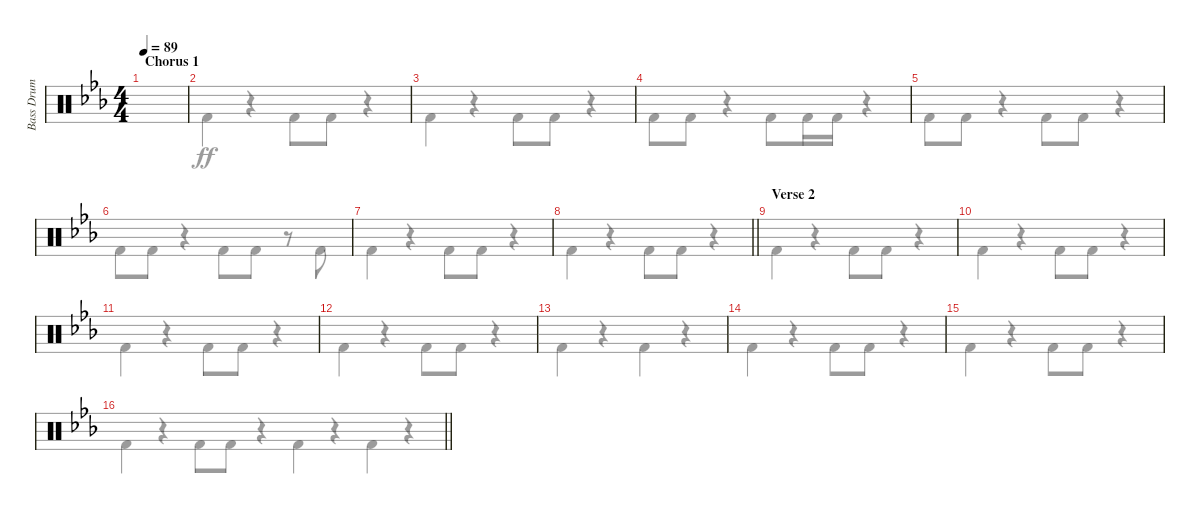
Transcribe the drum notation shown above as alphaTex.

\track ("Bass Drum" "Bass Drum") {instrument percussion}
\staff {score}
\articulation defaults
\voice
\ts (4 4)
\section ("" "Chorus 1")
\tempo 89
\clef neutral
\ks eb
|
|
|
|
|
|
|
\barLineRight lightlight
|
\section ("" "Verse 2")
|
|
|
|
|
|
|
\barLineRight lightlight
\voice
\clef neutral
\ks eb "Kick (hit) 2".4{dy ff}
r.4 "Kick (hit) 2".8 "Kick (hit) 2".8 r.4 |
"Kick (hit) 2".4 r.4 "Kick (hit) 2".8 "Kick (hit) 2".8 r.4 |
"Kick (hit) 2".4 r.4 "Kick (hit) 2".8 "Kick (hit) 2".8 r.4 |
"Kick (hit) 2".8 "Kick (hit) 2".8 r.4 "Kick (hit) 2".8 "Kick (hit) 2".16 "Kick (hit) 2".16 r.4 |
"Kick (hit) 2".8 "Kick (hit) 2".8 r.4 "Kick (hit) 2".8 "Kick (hit) 2".8 r.4 |
"Kick (hit) 2".8 "Kick (hit) 2".8 r.4 "Kick (hit) 2".8 "Kick (hit) 2".8 r.8 "Kick (hit) 2".8 |
"Kick (hit) 2".4 r.4 "Kick (hit) 2".8 "Kick (hit) 2".8 r.4 |
\barLineRight lightlight "Kick (hit) 2".4
r.4 "Kick (hit) 2".8 "Kick (hit) 2".8 r.4 |
"Kick (hit) 2".4 r.4 "Kick (hit) 2".8 "Kick (hit) 2".8 r.4 |
"Kick (hit) 2".4 r.4 "Kick (hit) 2".8 "Kick (hit) 2".8 r.4 |
"Kick (hit) 2".4 r.4 "Kick (hit) 2".8 "Kick (hit) 2".8 r.4 |
"Kick (hit) 2".4 r.4 "Kick (hit) 2".8 "Kick (hit) 2".8 r.4 |
"Kick (hit) 2".4 r.4 "Kick (hit) 2".4 r.4 |
"Kick (hit) 2".4 r.4 "Kick (hit) 2".8 "Kick (hit) 2".8 r.4 |
"Kick (hit) 2".4 r.4 "Kick (hit) 2".8 "Kick (hit) 2".8 r.4 |
\barLineRight lightlight "Kick (hit) 2".4
r.4 "Kick (hit) 2".4 r.4
